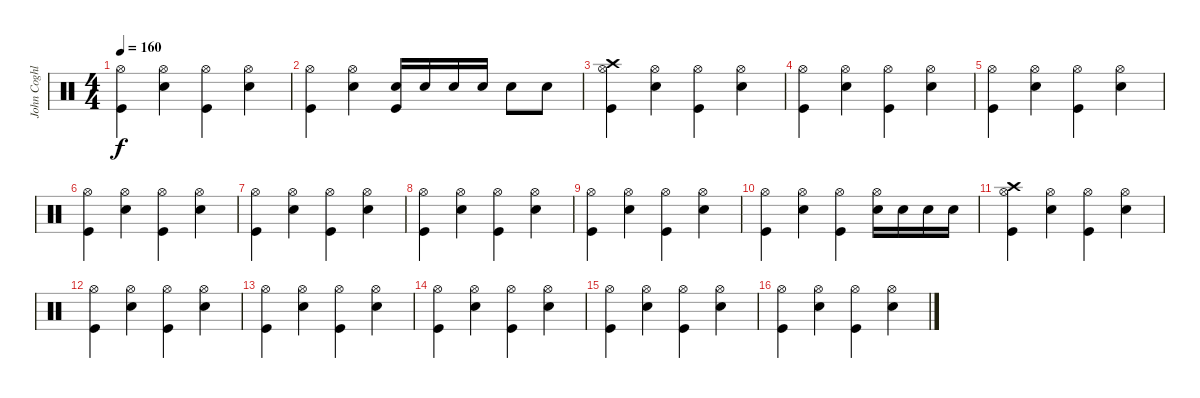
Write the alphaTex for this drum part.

\track ("John Coghlan" "John Coghl") {instrument percussion}
\staff {score}
\articulation defaults
\ts (4 4)
\tempo 160
\clef neutral
\ks c
("Hi-Hat (open)" "Kick (hit)").4{dy f} ("Electric Snare (hit)" "Hi-Hat (open)").4 ("Hi-Hat (open)" "Kick (hit)").4 ("Electric Snare (hit)" "Hi-Hat (open)").4 |
("Hi-Hat (open)" "Kick (hit)").4 ("Electric Snare (hit)" "Hi-Hat (open)").4 ("Electric Snare (hit)" "Kick (hit)").16 "Electric Snare (hit)".16 "Electric Snare (hit)".16 "Electric Snare (hit)".16 "Electric Snare (hit)".8 "Electric Snare (hit)".8 |
("Crash high (hit)" "Hi-Hat (open)" "Kick (hit)").4 ("Hi-Hat (open)" "Electric Snare (hit)").4 ("Hi-Hat (open)" "Kick (hit)").4 ("Hi-Hat (open)" "Electric Snare (hit)").4 |
("Hi-Hat (open)" "Kick (hit)").4 ("Hi-Hat (open)" "Electric Snare (hit)").4 ("Hi-Hat (open)" "Kick (hit)").4 ("Hi-Hat (open)" "Electric Snare (hit)").4 |
("Hi-Hat (open)" "Kick (hit)").4 ("Hi-Hat (open)" "Electric Snare (hit)").4 ("Hi-Hat (open)" "Kick (hit)").4 ("Hi-Hat (open)" "Electric Snare (hit)").4 |
("Hi-Hat (open)" "Kick (hit)").4 ("Electric Snare (hit)" "Hi-Hat (open)").4 ("Hi-Hat (open)" "Kick (hit)").4 ("Electric Snare (hit)" "Hi-Hat (open)").4 |
("Hi-Hat (open)" "Kick (hit)").4 ("Electric Snare (hit)" "Hi-Hat (open)").4 ("Hi-Hat (open)" "Kick (hit)").4 ("Electric Snare (hit)" "Hi-Hat (open)").4 |
("Hi-Hat (open)" "Kick (hit)").4 ("Electric Snare (hit)" "Hi-Hat (open)").4 ("Hi-Hat (open)" "Kick (hit)").4 ("Electric Snare (hit)" "Hi-Hat (open)").4 |
("Hi-Hat (open)" "Kick (hit)").4 ("Electric Snare (hit)" "Hi-Hat (open)").4 ("Hi-Hat (open)" "Kick (hit)").4 ("Electric Snare (hit)" "Hi-Hat (open)").4 |
("Hi-Hat (open)" "Kick (hit)").4 ("Electric Snare (hit)" "Hi-Hat (open)").4 ("Hi-Hat (open)" "Kick (hit)").4 ("Electric Snare (hit)" "Hi-Hat (open)").16 "Electric Snare (hit)".16 "Electric Snare (hit)".16 "Electric Snare (hit)".16 |
("Crash high (hit)" "Hi-Hat (open)" "Kick (hit)").4 ("Electric Snare (hit)" "Hi-Hat (open)").4 ("Hi-Hat (open)" "Kick (hit)").4 ("Electric Snare (hit)" "Hi-Hat (open)").4 |
("Hi-Hat (open)" "Kick (hit)").4 ("Electric Snare (hit)" "Hi-Hat (open)").4 ("Hi-Hat (open)" "Kick (hit)").4 ("Electric Snare (hit)" "Hi-Hat (open)").4 |
("Hi-Hat (open)" "Kick (hit)").4 ("Electric Snare (hit)" "Hi-Hat (open)").4 ("Hi-Hat (open)" "Kick (hit)").4 ("Electric Snare (hit)" "Hi-Hat (open)").4 |
("Hi-Hat (open)" "Kick (hit)").4 ("Electric Snare (hit)" "Hi-Hat (open)").4 ("Hi-Hat (open)" "Kick (hit)").4 ("Electric Snare (hit)" "Hi-Hat (open)").4 |
("Hi-Hat (open)" "Kick (hit)").4 ("Electric Snare (hit)" "Hi-Hat (open)").4 ("Hi-Hat (open)" "Kick (hit)").4 ("Electric Snare (hit)" "Hi-Hat (open)").4 |
("Hi-Hat (open)" "Kick (hit)").4 ("Electric Snare (hit)" "Hi-Hat (open)").4 ("Hi-Hat (open)" "Kick (hit)").4 ("Electric Snare (hit)" "Hi-Hat (open)").4
